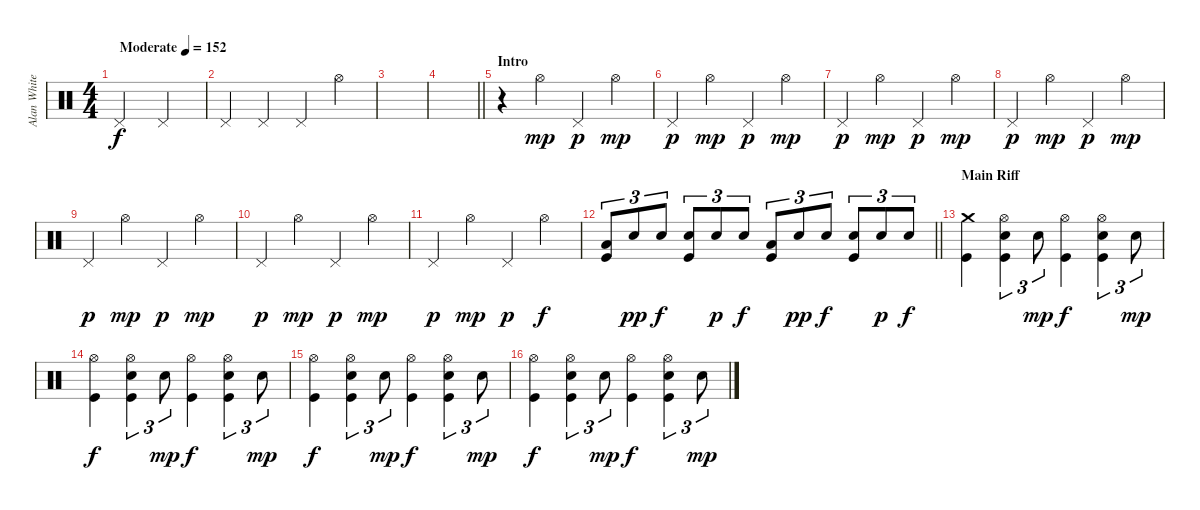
\track ("Alan White" "Alan White") {instrument percussion}
\staff {score}
\articulation defaults
\ts (4 4)
\tempo (152 "Moderate")
\clef neutral
\ks c "Pedal Hi-Hat (hit)".2{dy f} "Pedal Hi-Hat (hit)".2
|
"Pedal Hi-Hat (hit)".4 "Pedal Hi-Hat (hit)".4 "Pedal Hi-Hat (hit)".4 "Hi-Hat (open)".4 |
|
\barLineRight lightlight
|
\section ("" "Intro")
r.4 "Hi-Hat (open)".4{dy mp} "Pedal Hi-Hat (hit)".4{dy p} "Hi-Hat (open)".4{dy mp} |
"Pedal Hi-Hat (hit)".4{dy p} "Hi-Hat (open)".4{dy mp} "Pedal Hi-Hat (hit)".4{dy p} "Hi-Hat (open)".4{dy mp} |
"Pedal Hi-Hat (hit)".4{dy p} "Hi-Hat (open)".4{dy mp} "Pedal Hi-Hat (hit)".4{dy p} "Hi-Hat (open)".4{dy mp} |
"Pedal Hi-Hat (hit)".4{dy p} "Hi-Hat (open)".4{dy mp} "Pedal Hi-Hat (hit)".4{dy p} "Hi-Hat (open)".4{dy mp} |
"Pedal Hi-Hat (hit)".4{dy p} "Hi-Hat (open)".4{dy mp} "Pedal Hi-Hat (hit)".4{dy p} "Hi-Hat (open)".4{dy mp} |
"Pedal Hi-Hat (hit)".4{dy p} "Hi-Hat (open)".4{dy mp} "Pedal Hi-Hat (hit)".4{dy p} "Hi-Hat (open)".4{dy mp} |
"Pedal Hi-Hat (hit)".4{dy p} "Hi-Hat (open)".4{dy mp} "Pedal Hi-Hat (hit)".4{dy p} "Hi-Hat (open)".4{dy f} |
\barLineRight lightlight
("Low Tom (hit)" "Kick (hit)").8{tu (3 2)} "Electric Snare (hit)".8{tu (3 2) dy pp} "Electric Snare (hit)".8{tu (3 2) dy f} ("Electric Snare (hit)" "Kick (hit)").8{tu (3 2)} "Electric Snare (hit)".8{tu (3 2) dy p} "Electric Snare (hit)".8{tu (3 2) dy f} ("Low Tom (hit)" "Kick (hit)").8{tu (3 2)} "Electric Snare (hit)".8{tu (3 2) dy pp} "Electric Snare (hit)".8{tu (3 2) dy f} ("Electric Snare (hit)" "Kick (hit)").8{tu (3 2)} "Electric Snare (hit)".8{tu (3 2) dy p} "Electric Snare (hit)".8{tu (3 2) dy f} |
\section ("" "Main Riff")
("Crash medium (hit)" "Kick (hit)").4 ("Hi-Hat (open)" "Electric Snare (hit)" "Kick (hit)").4{tu (3 2)} "Electric Snare (hit)".8{tu (3 2) dy mp} ("Hi-Hat (open)" "Kick (hit)").4{dy f} ("Hi-Hat (open)" "Electric Snare (hit)" "Kick (hit)").4{tu (3 2)} "Electric Snare (hit)".8{tu (3 2) dy mp} |
("Hi-Hat (open)" "Kick (hit)").4{dy f} ("Hi-Hat (open)" "Electric Snare (hit)" "Kick (hit)").4{tu (3 2)} "Electric Snare (hit)".8{tu (3 2) dy mp} ("Hi-Hat (open)" "Kick (hit)").4{dy f} ("Hi-Hat (open)" "Electric Snare (hit)" "Kick (hit)").4{tu (3 2)} "Electric Snare (hit)".8{tu (3 2) dy mp} |
("Hi-Hat (open)" "Kick (hit)").4{dy f} ("Hi-Hat (open)" "Electric Snare (hit)" "Kick (hit)").4{tu (3 2)} "Electric Snare (hit)".8{tu (3 2) dy mp} ("Hi-Hat (open)" "Kick (hit)").4{dy f} ("Hi-Hat (open)" "Electric Snare (hit)" "Kick (hit)").4{tu (3 2)} "Electric Snare (hit)".8{tu (3 2) dy mp} |
("Hi-Hat (open)" "Kick (hit)").4{dy f} ("Hi-Hat (open)" "Electric Snare (hit)" "Kick (hit)").4{tu (3 2)} "Electric Snare (hit)".8{tu (3 2) dy mp} ("Hi-Hat (open)" "Kick (hit)").4{dy f} ("Hi-Hat (open)" "Electric Snare (hit)" "Kick (hit)").4{tu (3 2)} "Electric Snare (hit)".8{tu (3 2) dy mp}
